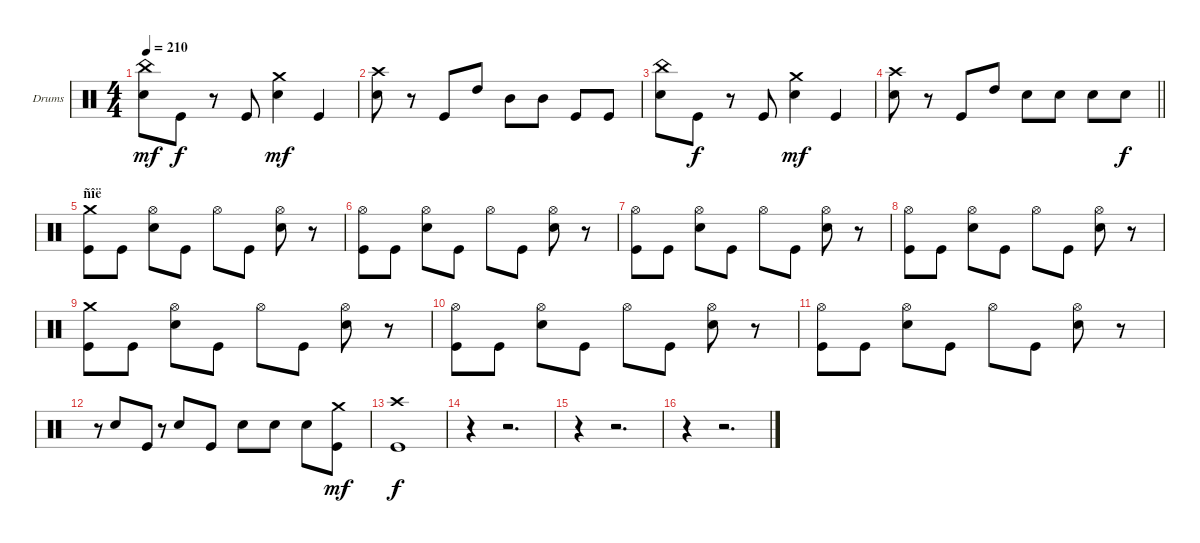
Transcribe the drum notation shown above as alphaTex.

\bracketExtendMode groupsimilarinstruments
\firstSystemTrackNameOrientation horizontal
\otherSystemsTrackNameOrientation horizontal
\track ("Drumkit" "Drums") {instrument percussion}
\staff {score}
\articulation defaults
\ts (4 4)
\tempo 210
\clef neutral
\ks c
("China (hit)" "Snare (hit) 2").8{dy mf} "Kick (hit)".8{dy f} r.8 "Kick (hit)".8 ("Crash medium (hit)" "Snare (hit) 2").4{dy mf} "Kick (hit)".4 |
("Crash high (hit)" "Snare (hit) 2").8 r.8 "Kick (hit)".8 "High Tom (hit)".8 "Mid Tom (hit)".8 "Mid Tom (hit)".8 "Kick (hit)".8 "Kick (hit)".8 |
("China (hit)" "Snare (hit) 2").8 "Kick (hit)".8{dy f} r.8 "Kick (hit)".8 ("Crash medium (hit)" "Snare (hit) 2").4{dy mf} "Kick (hit)".4 |
\barLineRight lightlight
("Crash high (hit)" "Snare (hit) 2").8 r.8 "Kick (hit)".8 "High Tom (hit)".8 "Snare (hit) 2".8 "Snare (hit) 2".8 "Snare (hit) 2".8 "Snare (hit) 2".8{dy f} |
\section ("" "ñîë")
("Crash medium (hit)" "Kick (hit)").8 "Kick (hit)".8 ("Hi-Hat (open)" "Snare (hit) 2").8 "Kick (hit)".8 "Hi-Hat (open)".8 "Kick (hit)".8 ("Hi-Hat (open)" "Snare (hit) 2").8 r.8 |
("Hi-Hat (open)" "Kick (hit)").8 "Kick (hit)".8 ("Hi-Hat (open)" "Snare (hit) 2").8 "Kick (hit)".8 "Hi-Hat (open)".8 "Kick (hit)".8 ("Hi-Hat (open)" "Snare (hit) 2").8 r.8 |
("Hi-Hat (open)" "Kick (hit)").8 "Kick (hit)".8 ("Hi-Hat (open)" "Snare (hit) 2").8 "Kick (hit)".8 "Hi-Hat (open)".8 "Kick (hit)".8 ("Hi-Hat (open)" "Snare (hit) 2").8 r.8 |
("Hi-Hat (open)" "Kick (hit)").8 "Kick (hit)".8 ("Hi-Hat (open)" "Snare (hit) 2").8 "Kick (hit)".8 "Hi-Hat (open)".8 "Kick (hit)".8 ("Hi-Hat (open)" "Snare (hit) 2").8 r.8 |
("Crash medium (hit)" "Kick (hit)").8 "Kick (hit)".8 ("Hi-Hat (open)" "Snare (hit) 2").8 "Kick (hit)".8 "Hi-Hat (open)".8 "Kick (hit)".8 ("Hi-Hat (open)" "Snare (hit) 2").8 r.8 |
("Hi-Hat (open)" "Kick (hit)").8 "Kick (hit)".8 ("Hi-Hat (open)" "Snare (hit) 2").8 "Kick (hit)".8 "Hi-Hat (open)".8 "Kick (hit)".8 ("Hi-Hat (open)" "Snare (hit) 2").8 r.8 |
("Hi-Hat (open)" "Kick (hit)").8 "Kick (hit)".8 ("Hi-Hat (open)" "Snare (hit) 2").8 "Kick (hit)".8 "Hi-Hat (open)".8 "Kick (hit)".8 ("Hi-Hat (open)" "Snare (hit) 2").8 r.8 |
r.8{gr} "Snare (hit) 2".8 "Kick (hit)".8 r.8{gr} "Snare (hit) 2".8 "Kick (hit)".8 "Snare (hit) 2".8 "Snare (hit) 2".8 "Snare (hit) 2".8 ("Crash medium (hit)" "Kick (hit)").8{dy mf} |
("Crash high (hit)" "Kick (hit)").1{dy f} |
r.4 r.2{d} |
r.4 r.2{d} |
r.4 r.2{d}
